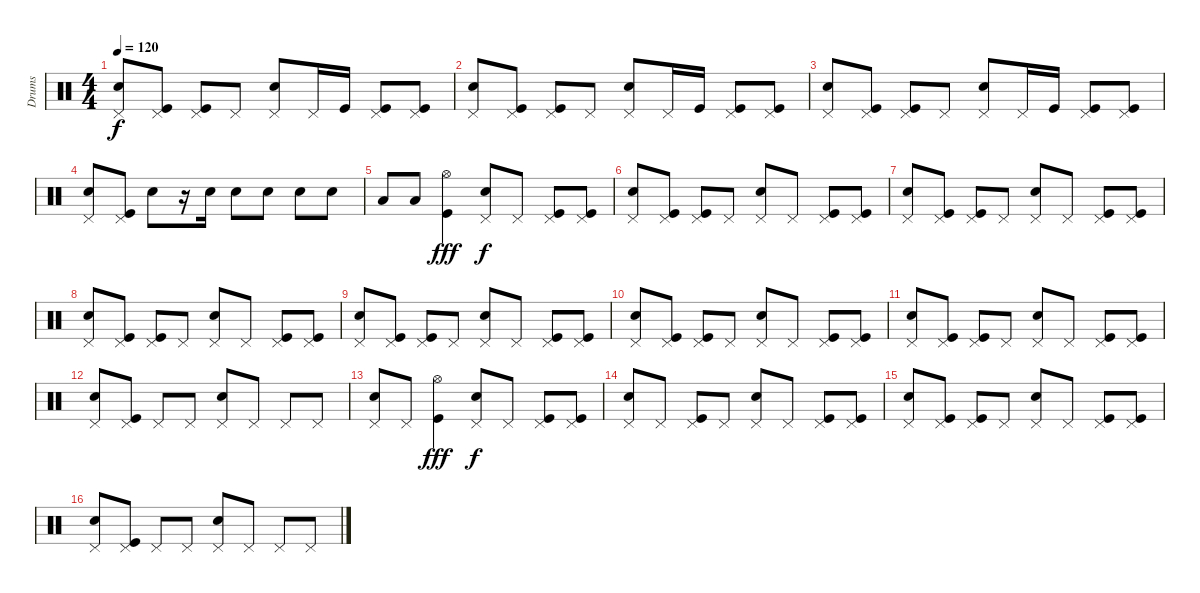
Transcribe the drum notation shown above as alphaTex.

\track ("Drums" "Drums") {instrument percussion}
\staff {score}
\articulation defaults
\ts (4 4)
\tempo 120
\clef neutral
\ks c
("Snare (hit) 2" "Pedal Hi-Hat (hit)").8{dy f} ("Kick (hit)" "Pedal Hi-Hat (hit)").8 ("Kick (hit)" "Pedal Hi-Hat (hit)").8 "Pedal Hi-Hat (hit)".8 ("Snare (hit) 2" "Pedal Hi-Hat (hit)").8 "Pedal Hi-Hat (hit)".16 "Kick (hit)".16 ("Kick (hit)" "Pedal Hi-Hat (hit)").8 ("Kick (hit)" "Pedal Hi-Hat (hit)").8 |
("Snare (hit) 2" "Pedal Hi-Hat (hit)").8 ("Kick (hit)" "Pedal Hi-Hat (hit)").8 ("Kick (hit)" "Pedal Hi-Hat (hit)").8 "Pedal Hi-Hat (hit)".8 ("Snare (hit) 2" "Pedal Hi-Hat (hit)").8 "Pedal Hi-Hat (hit)".16 "Kick (hit)".16 ("Kick (hit)" "Pedal Hi-Hat (hit)").8 ("Kick (hit)" "Pedal Hi-Hat (hit)").8 |
("Snare (hit) 2" "Pedal Hi-Hat (hit)").8 ("Kick (hit)" "Pedal Hi-Hat (hit)").8 ("Kick (hit)" "Pedal Hi-Hat (hit)").8 "Pedal Hi-Hat (hit)".8 ("Snare (hit) 2" "Pedal Hi-Hat (hit)").8 "Pedal Hi-Hat (hit)".16 "Kick (hit)".16 ("Kick (hit)" "Pedal Hi-Hat (hit)").8 ("Kick (hit)" "Pedal Hi-Hat (hit)").8 |
("Snare (hit) 2" "Pedal Hi-Hat (hit)").8 ("Kick (hit)" "Pedal Hi-Hat (hit)").8 "Electric Snare (hit)".8 r.16 "Electric Snare (hit)".16 "Electric Snare (hit)".8 "Electric Snare (hit)".8 "Electric Snare (hit)".8 "Electric Snare (hit)".8 |
"Low Floor Tom (hit)".8 "Low Floor Tom (hit)".8 ("Kick (hit)" "Hi-Hat (open)").4{dy fff} ("Snare (hit) 2" "Pedal Hi-Hat (hit)").8{dy f} "Pedal Hi-Hat (hit)".8 ("Kick (hit)" "Pedal Hi-Hat (hit)").8 ("Kick (hit)" "Pedal Hi-Hat (hit)").8 |
("Snare (hit) 2" "Pedal Hi-Hat (hit)").8 ("Kick (hit)" "Pedal Hi-Hat (hit)").8 ("Kick (hit)" "Pedal Hi-Hat (hit)").8 "Pedal Hi-Hat (hit)".8 ("Snare (hit) 2" "Pedal Hi-Hat (hit)").8 "Pedal Hi-Hat (hit)".8 ("Kick (hit)" "Pedal Hi-Hat (hit)").8 ("Kick (hit)" "Pedal Hi-Hat (hit)").8 |
("Snare (hit) 2" "Pedal Hi-Hat (hit)").8 ("Kick (hit)" "Pedal Hi-Hat (hit)").8 ("Kick (hit)" "Pedal Hi-Hat (hit)").8 "Pedal Hi-Hat (hit)".8 ("Snare (hit) 2" "Pedal Hi-Hat (hit)").8 "Pedal Hi-Hat (hit)".8 ("Kick (hit)" "Pedal Hi-Hat (hit)").8 ("Kick (hit)" "Pedal Hi-Hat (hit)").8 |
("Snare (hit) 2" "Pedal Hi-Hat (hit)").8 ("Kick (hit)" "Pedal Hi-Hat (hit)").8 ("Kick (hit)" "Pedal Hi-Hat (hit)").8 "Pedal Hi-Hat (hit)".8 ("Snare (hit) 2" "Pedal Hi-Hat (hit)").8 "Pedal Hi-Hat (hit)".8 ("Kick (hit)" "Pedal Hi-Hat (hit)").8 ("Kick (hit)" "Pedal Hi-Hat (hit)").8 |
("Snare (hit) 2" "Pedal Hi-Hat (hit)").8 ("Kick (hit)" "Pedal Hi-Hat (hit)").8 ("Kick (hit)" "Pedal Hi-Hat (hit)").8 "Pedal Hi-Hat (hit)".8 ("Snare (hit) 2" "Pedal Hi-Hat (hit)").8 "Pedal Hi-Hat (hit)".8 ("Kick (hit)" "Pedal Hi-Hat (hit)").8 ("Kick (hit)" "Pedal Hi-Hat (hit)").8 |
("Snare (hit) 2" "Pedal Hi-Hat (hit)").8 ("Kick (hit)" "Pedal Hi-Hat (hit)").8 ("Kick (hit)" "Pedal Hi-Hat (hit)").8 "Pedal Hi-Hat (hit)".8 ("Snare (hit) 2" "Pedal Hi-Hat (hit)").8 "Pedal Hi-Hat (hit)".8 ("Kick (hit)" "Pedal Hi-Hat (hit)").8 ("Kick (hit)" "Pedal Hi-Hat (hit)").8 |
("Snare (hit) 2" "Pedal Hi-Hat (hit)").8 ("Kick (hit)" "Pedal Hi-Hat (hit)").8 ("Kick (hit)" "Pedal Hi-Hat (hit)").8 "Pedal Hi-Hat (hit)".8 ("Snare (hit) 2" "Pedal Hi-Hat (hit)").8 "Pedal Hi-Hat (hit)".8 ("Kick (hit)" "Pedal Hi-Hat (hit)").8 ("Kick (hit)" "Pedal Hi-Hat (hit)").8 |
("Snare (hit) 2" "Pedal Hi-Hat (hit)").8 ("Kick (hit)" "Pedal Hi-Hat (hit)").8 "Pedal Hi-Hat (hit)".8 "Pedal Hi-Hat (hit)".8 ("Snare (hit) 2" "Pedal Hi-Hat (hit)").8 "Pedal Hi-Hat (hit)".8 "Pedal Hi-Hat (hit)".8 "Pedal Hi-Hat (hit)".8 |
("Snare (hit) 2" "Pedal Hi-Hat (hit)").8 "Pedal Hi-Hat (hit)".8 ("Kick (hit)" "Hi-Hat (open)").4{dy fff} ("Snare (hit) 2" "Pedal Hi-Hat (hit)").8{dy f} "Pedal Hi-Hat (hit)".8 ("Kick (hit)" "Pedal Hi-Hat (hit)").8 ("Kick (hit)" "Pedal Hi-Hat (hit)").8 |
("Snare (hit) 2" "Pedal Hi-Hat (hit)").8 "Pedal Hi-Hat (hit)".8 ("Kick (hit)" "Pedal Hi-Hat (hit)").8 "Pedal Hi-Hat (hit)".8 ("Snare (hit) 2" "Pedal Hi-Hat (hit)").8 "Pedal Hi-Hat (hit)".8 ("Kick (hit)" "Pedal Hi-Hat (hit)").8 ("Kick (hit)" "Pedal Hi-Hat (hit)").8 |
("Snare (hit) 2" "Pedal Hi-Hat (hit)").8 ("Kick (hit)" "Pedal Hi-Hat (hit)").8 ("Kick (hit)" "Pedal Hi-Hat (hit)").8 "Pedal Hi-Hat (hit)".8 ("Snare (hit) 2" "Pedal Hi-Hat (hit)").8 "Pedal Hi-Hat (hit)".8 ("Kick (hit)" "Pedal Hi-Hat (hit)").8 ("Kick (hit)" "Pedal Hi-Hat (hit)").8 |
("Snare (hit) 2" "Pedal Hi-Hat (hit)").8 ("Kick (hit)" "Pedal Hi-Hat (hit)").8 "Pedal Hi-Hat (hit)".8 "Pedal Hi-Hat (hit)".8 ("Snare (hit) 2" "Pedal Hi-Hat (hit)").8 "Pedal Hi-Hat (hit)".8 "Pedal Hi-Hat (hit)".8 "Pedal Hi-Hat (hit)".8
